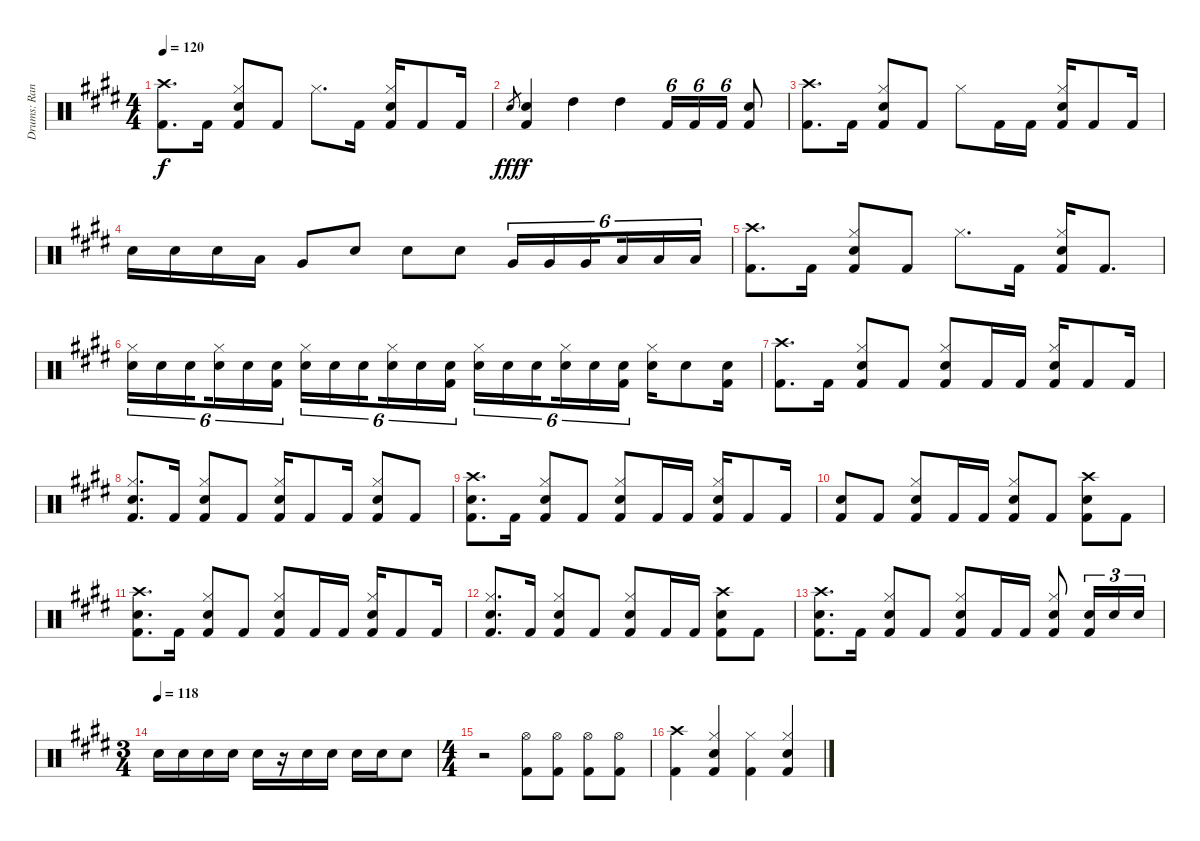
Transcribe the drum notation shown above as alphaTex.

\track ("Drums: Randy" "Drums: Ran") {instrument percussion}
\staff {score}
\articulation defaults
\ts (4 4)
\tempo 120
\clef neutral
\ks e
("Crash high (hit)" "Kick (hit) 2").8{d dy f} "Kick (hit) 2".16 ("Hi-Hat (closed)" "Snare (hit) 2" "Kick (hit) 2").8 "Kick (hit) 2".8 "Hi-Hat (closed)".8{d} "Kick (hit) 2".16 ("Hi-Hat (closed)" "Snare (hit) 2" "Kick (hit) 2").16 "Kick (hit) 2".8 "Kick (hit) 2".16 |
"Snare (hit) 2".8{gr dy fff} ("Snare (hit) 2" "Kick (hit) 2").4{dy f} "High Tom (hit)".4 "High Tom (hit)".4 "Kick (hit) 2".16{tu (6 4)} "Kick (hit) 2".16{tu (6 4)} "Kick (hit) 2".16{tu (6 4)} ("Snare (hit) 2" "Kick (hit) 2").8 |
("Crash high (hit)" "Kick (hit) 2").8{d} "Kick (hit) 2".16 ("Hi-Hat (closed)" "Snare (hit) 2" "Kick (hit) 2").8 "Kick (hit) 2".8 "Hi-Hat (closed)".8 "Kick (hit) 2".16 "Kick (hit) 2".16 ("Hi-Hat (closed)" "Snare (hit) 2" "Kick (hit) 2").16 "Kick (hit) 2".8 "Kick (hit) 2".16 |
"Snare (hit) 2".16 "Snare (hit) 2".16 "Snare (hit) 2".16 "Low Tom (hit)".16 "Very Low Tom (hit)".8 "Snare (hit) 2".8 "Snare (hit) 2".8 "Snare (hit) 2".8 "Very Low Tom (hit)".16{tu (6 4)} "Very Low Tom (hit)".16{tu (6 4)} "Very Low Tom (hit)".16{tu (6 4) beam splitsecondary} "Low Floor Tom (hit)".16{tu (6 4)} "Low Floor Tom (hit)".16{tu (6 4)} "Low Floor Tom (hit)".16{tu (6 4)} |
("Crash high (hit)" "Kick (hit) 2").8{d} "Kick (hit) 2".16 ("Hi-Hat (closed)" "Snare (hit) 2" "Kick (hit) 2").8 "Kick (hit) 2".8 "Hi-Hat (closed)".8{d} "Kick (hit) 2".16 ("Hi-Hat (closed)" "Snare (hit) 2" "Kick (hit) 2").16 "Kick (hit) 2".8{d} |
("Hi-Hat (closed)" "Snare (hit) 2").16{tu (6 4)} "Snare (hit) 2".16{tu (6 4)} "Snare (hit) 2".16{tu (6 4) beam splitsecondary} ("Hi-Hat (closed)" "Snare (hit) 2").16{tu (6 4)} "Snare (hit) 2".16{tu (6 4)} ("Snare (hit) 2" "Kick (hit) 2").16{tu (6 4)} ("Hi-Hat (closed)" "Snare (hit) 2").16{tu (6 4)} "Snare (hit) 2".16{tu (6 4)} "Snare (hit) 2".16{tu (6 4) beam splitsecondary} ("Hi-Hat (closed)" "Snare (hit) 2").16{tu (6 4)} "Snare (hit) 2".16{tu (6 4)} ("Snare (hit) 2" "Kick (hit) 2").16{tu (6 4)} ("Hi-Hat (closed)" "Snare (hit) 2").16{tu (6 4)} "Snare (hit) 2".16{tu (6 4)} "Snare (hit) 2".16{tu (6 4) beam splitsecondary} ("Hi-Hat (closed)" "Snare (hit) 2").16{tu (6 4)} "Snare (hit) 2".16{tu (6 4)} ("Snare (hit) 2" "Kick (hit) 2").16{tu (6 4)} ("Hi-Hat (closed)" "Snare (hit) 2").16 "Snare (hit) 2".8 ("Snare (hit) 2" "Kick (hit) 2").16 |
("Crash high (hit)" "Kick (hit) 2").8{d} "Kick (hit) 2".16 ("Hi-Hat (closed)" "Snare (hit) 2" "Kick (hit) 2").8 "Kick (hit) 2".8 ("Hi-Hat (closed)" "Snare (hit) 2" "Kick (hit) 2").8 "Kick (hit) 2".16 "Kick (hit) 2".16 ("Hi-Hat (closed)" "Snare (hit) 2" "Kick (hit) 2").16 "Kick (hit) 2".8 "Kick (hit) 2".16 |
("Hi-Hat (closed)" "Snare (hit) 2" "Kick (hit) 2").8{d} "Kick (hit) 2".16 ("Hi-Hat (closed)" "Snare (hit) 2" "Kick (hit) 2").8 "Kick (hit) 2".8 ("Hi-Hat (closed)" "Snare (hit) 2" "Kick (hit) 2").16 "Kick (hit) 2".8 "Kick (hit) 2".16 ("Hi-Hat (closed)" "Snare (hit) 2" "Kick (hit) 2").8 "Kick (hit) 2".8 |
("Crash high (hit)" "Snare (hit) 2" "Kick (hit) 2").8{d} "Kick (hit) 2".16 ("Hi-Hat (closed)" "Snare (hit) 2" "Kick (hit) 2").8 "Kick (hit) 2".8 ("Hi-Hat (closed)" "Snare (hit) 2" "Kick (hit) 2").8 "Kick (hit) 2".16 "Kick (hit) 2".16 ("Hi-Hat (closed)" "Snare (hit) 2" "Kick (hit) 2").16 "Kick (hit) 2".8 "Kick (hit) 2".16 |
("Snare (hit) 2" "Kick (hit) 2").8 "Kick (hit) 2".8 ("Hi-Hat (closed)" "Snare (hit) 2" "Kick (hit) 2").8 "Kick (hit) 2".16 "Kick (hit) 2".16 ("Hi-Hat (closed)" "Snare (hit) 2" "Kick (hit) 2").8 "Kick (hit) 2".8 ("Crash high (hit)" "Snare (hit) 2" "Kick (hit) 2").8 "Kick (hit) 2".8 |
("Crash high (hit)" "Snare (hit) 2" "Kick (hit) 2").8{d} "Kick (hit) 2".16 ("Hi-Hat (closed)" "Snare (hit) 2" "Kick (hit) 2").8 "Kick (hit) 2".8 ("Hi-Hat (closed)" "Snare (hit) 2" "Kick (hit) 2").8 "Kick (hit) 2".16 "Kick (hit) 2".16 ("Hi-Hat (closed)" "Snare (hit) 2" "Kick (hit) 2").16 "Kick (hit) 2".8 "Kick (hit) 2".16 |
("Hi-Hat (closed)" "Snare (hit) 2" "Kick (hit) 2").8{d} "Kick (hit) 2".16 ("Hi-Hat (closed)" "Snare (hit) 2" "Kick (hit) 2").8 "Kick (hit) 2".8 ("Hi-Hat (closed)" "Snare (hit) 2" "Kick (hit) 2").8 "Kick (hit) 2".16 "Kick (hit) 2".16 ("Crash high (hit)" "Snare (hit) 2" "Kick (hit) 2").8 "Kick (hit) 2".8 |
("Crash high (hit)" "Snare (hit) 2" "Kick (hit) 2").8{d} "Kick (hit) 2".16 ("Hi-Hat (closed)" "Snare (hit) 2" "Kick (hit) 2").8 "Kick (hit) 2".8 ("Hi-Hat (closed)" "Snare (hit) 2" "Kick (hit) 2").8 "Kick (hit) 2".16 "Kick (hit) 2".16 ("Hi-Hat (closed)" "Snare (hit) 2" "Kick (hit) 2").8 ("Snare (hit) 2" "Kick (hit) 2").16{tu (3 2)} "Snare (hit) 2".16{tu (3 2)} "Snare (hit) 2".16{tu (3 2)} |
\ts (3 4)
\tempo (118)
"Snare (hit) 2".16 "Snare (hit) 2".16 "Snare (hit) 2".16 "Snare (hit) 2".16 "Snare (hit) 2".16 r.16 "Snare (hit) 2".16 "Snare (hit) 2".16 "Snare (hit) 2".16 "Snare (hit) 2".16 "Snare (hit) 2".8 |
\ts (4 4)
r.2 ("Hi-Hat (open)" "Kick (hit) 2").8 ("Hi-Hat (open)" "Kick (hit) 2").8 ("Hi-Hat (open)" "Kick (hit) 2").8 ("Hi-Hat (open)" "Kick (hit) 2").8 |
("Crash high (hit)" "Kick (hit) 2").4 ("Hi-Hat (closed)" "Snare (hit) 2" "Kick (hit) 2").4 ("Hi-Hat (closed)" "Kick (hit) 2").4 ("Hi-Hat (closed)" "Snare (hit) 2" "Kick (hit) 2").4
